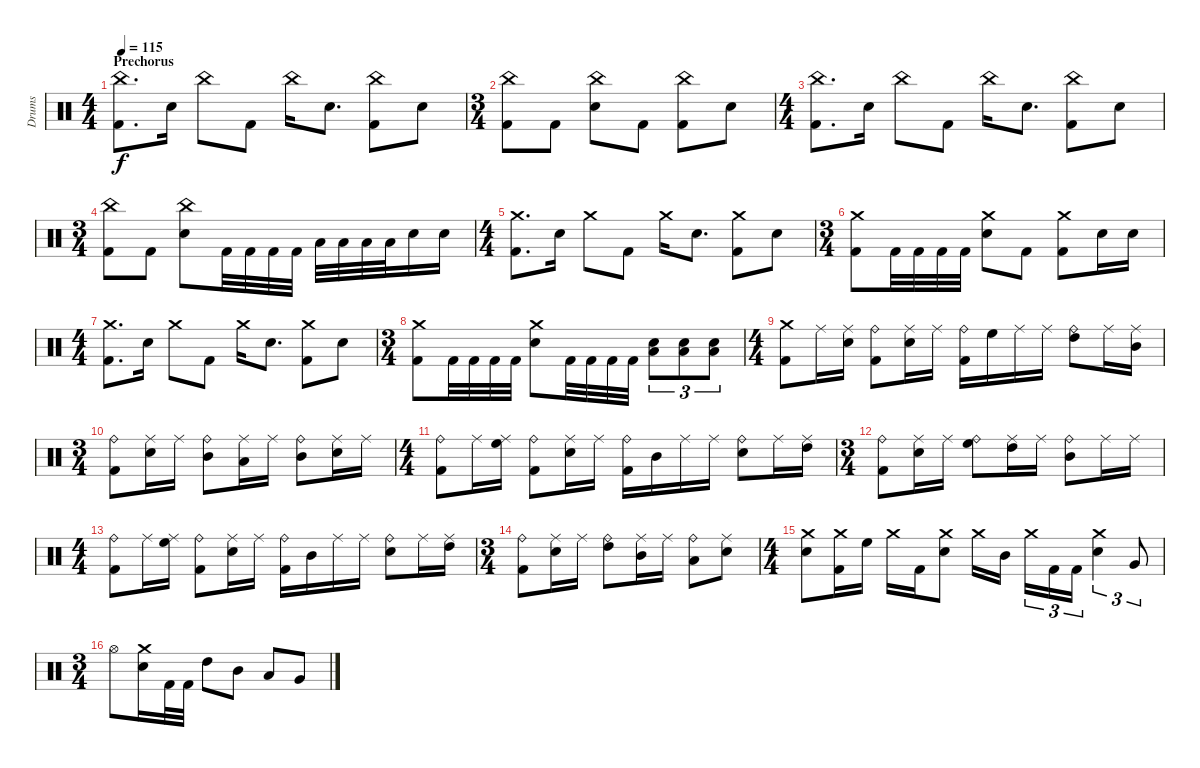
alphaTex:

\track ("Drums" "Drums") {instrument percussion}
\staff {score}
\articulation defaults
\ts (4 4)
\section ("" "Prechorus")
\tempo 115
\clef neutral
\ks c
("China (hit)" "Kick (hit) 2").8{d dy f} "Snare (hit) 2".16 "China (hit)".8 "Kick (hit) 2".8 "China (hit)".16 "Snare (hit) 2".8{d} ("China (hit)" "Kick (hit) 2").8 "Snare (hit) 2".8 |
\ts (3 4)
("China (hit)" "Kick (hit) 2").8 "Kick (hit) 2".8 ("China (hit)" "Snare (hit) 2").8 "Kick (hit) 2".8 ("China (hit)" "Kick (hit) 2").8 "Snare (hit) 2".8 |
\ts (4 4)
("China (hit)" "Kick (hit) 2").8{d} "Snare (hit) 2".16 "China (hit)".8 "Kick (hit) 2".8 "China (hit)".16 "Snare (hit) 2".8{d} ("China (hit)" "Kick (hit) 2").8 "Snare (hit) 2".8 |
\ts (3 4)
("China (hit)" "Kick (hit) 2").8 "Kick (hit) 2".8 ("China (hit)" "Snare (hit) 2").8 "Kick (hit) 2".32 "Kick (hit) 2".32 "Kick (hit) 2".32 "Kick (hit) 2".32 "Low Tom (hit)".32 "Low Tom (hit)".32 "Low Tom (hit)".32 "Low Tom (hit)".32 "Snare (hit) 2".16 "Snare (hit) 2".16 |
\ts (4 4)
("Crash medium (hit)" "Kick (hit) 2").8{d} "Snare (hit) 2".16 "Crash medium (hit)".8 "Kick (hit) 2".8 "Crash medium (hit)".16 "Snare (hit) 2".8{d} ("Crash medium (hit)" "Kick (hit) 2").8 "Snare (hit) 2".8 |
\ts (3 4)
("Crash medium (hit)" "Kick (hit) 2").8 "Kick (hit) 2".32 "Kick (hit) 2".32 "Kick (hit) 2".32 "Kick (hit) 2".32 ("Crash medium (hit)" "Snare (hit) 2").8 "Kick (hit) 2".8 ("Crash medium (hit)" "Kick (hit) 2").8 "Snare (hit) 2".16 "Snare (hit) 2".16 |
\ts (4 4)
("Crash medium (hit)" "Kick (hit) 2").8{d} "Snare (hit) 2".16 "Crash medium (hit)".8 "Kick (hit) 2".8 "Crash medium (hit)".16 "Snare (hit) 2".8{d} ("Crash medium (hit)" "Kick (hit) 2").8 "Snare (hit) 2".8 |
\ts (3 4)
("Crash medium (hit)" "Kick (hit) 2").8 "Kick (hit) 2".32 "Kick (hit) 2".32 "Kick (hit) 2".32 "Kick (hit) 2".32 ("Crash medium (hit)" "Snare (hit) 2").8 "Kick (hit) 2".32 "Kick (hit) 2".32 "Kick (hit) 2".32 "Kick (hit) 2".32 ("Low Tom (hit)" "Snare (hit) 2").8{tu (3 2)} ("Low Tom (hit)" "Snare (hit) 2").8{tu (3 2)} ("Low Tom (hit)" "Snare (hit) 2").8{tu (3 2)} |
\ts (4 4)
("Crash medium (hit)" "Kick (hit) 2").8 "Ride (middle)".16 ("Ride (middle)" "Snare (hit) 2").16 ("Ride (bell)" "Kick (hit) 2").8 ("Ride (middle)" "Snare (hit) 2").16 "Ride (middle)".16 ("Ride (bell)" "Kick (hit) 2").16 "High Floor Tom (hit)".16 "Ride (middle)".16 "Ride (middle)".16 ("Ride (bell)" "High Tom (hit)").8 "Ride (middle)".16 ("Ride (middle)" "Mid Tom (hit)").16 |
\ts (3 4)
("Ride (bell)" "Kick (hit) 2").8 ("Ride (middle)" "Snare (hit) 2").16 "Ride (middle)".16 ("Ride (bell)" "Mid Tom (hit)").8 ("Ride (middle)" "Low Tom (hit)").16 "Ride (middle)".16 ("Ride (bell)" "Mid Tom (hit)").8 ("Ride (middle)" "Snare (hit) 2").16 "Ride (middle)".16 |
\ts (4 4)
("Ride (bell)" "Kick (hit) 2").8 "Ride (middle)".16 ("Ride (middle)" "High Floor Tom (hit)").16 ("Ride (bell)" "Kick (hit) 2").8 ("Ride (middle)" "Snare (hit) 2").16 "Ride (middle)".16 ("Ride (bell)" "Kick (hit) 2").16 "Mid Tom (hit)".16 "Ride (middle)".16 "Ride (middle)".16 ("Ride (bell)" "Snare (hit) 2").8 "Ride (middle)".16 ("Ride (middle)" "High Tom (hit)").16 |
\ts (3 4)
("Ride (bell)" "Kick (hit) 2").8 ("Ride (middle)" "Snare (hit) 2").16 "Ride (middle)".16 ("Ride (bell)" "High Floor Tom (hit)").8 ("Ride (middle)" "High Tom (hit)").16 "Ride (middle)".16 ("Ride (bell)" "Mid Tom (hit)").8 "Ride (middle)".16 "Ride (middle)".16 |
\ts (4 4)
("Ride (bell)" "Kick (hit) 2").8 "Ride (middle)".16 ("Ride (middle)" "High Floor Tom (hit)").16 ("Ride (bell)" "Kick (hit) 2").8 ("Ride (middle)" "Snare (hit) 2").16 "Ride (middle)".16 ("Ride (bell)" "Kick (hit) 2").16 "Mid Tom (hit)".16 "Ride (middle)".16 "Ride (middle)".16 ("Ride (bell)" "Snare (hit) 2").8 "Ride (middle)".16 ("Ride (middle)" "High Tom (hit)").16 |
\ts (3 4)
("Ride (bell)" "Kick (hit) 2").8 ("Ride (middle)" "Snare (hit) 2").16 "Ride (middle)".16 ("Ride (bell)" "High Tom (hit)").8 ("Ride (middle)" "Mid Tom (hit)").16 "Ride (middle)".16 ("Ride (bell)" "Low Tom (hit)").8 ("Ride (middle)" "Snare (hit) 2").8 |
\ts (4 4)
("Crash medium (hit)" "Snare (hit) 2").8 ("Crash medium (hit)" "Kick (hit) 2").16 "High Floor Tom (hit)".16 "Crash medium (hit)".16 "Kick (hit) 2".16 ("Crash medium (hit)" "Snare (hit) 2").8 "Crash medium (hit)".16 "Mid Tom (hit)".16 "Crash medium (hit)".16{tu (3 2)} "Kick (hit) 2".16{tu (3 2)} "Kick (hit) 2".16{tu (3 2)} ("Crash medium (hit)" "Snare (hit) 2").4{tu (3 2)} "Very Low Tom (hit)".8{tu (3 2)} |
\ts (3 4)
"Hi-Hat (open)".8 ("Crash medium (hit)" "Snare (hit) 2").16 "Kick (hit) 2".32 "Kick (hit) 2".32 "High Tom (hit)".8 "Mid Tom (hit)".8 "Low Tom (hit)".8 "Very Low Tom (hit)".8
